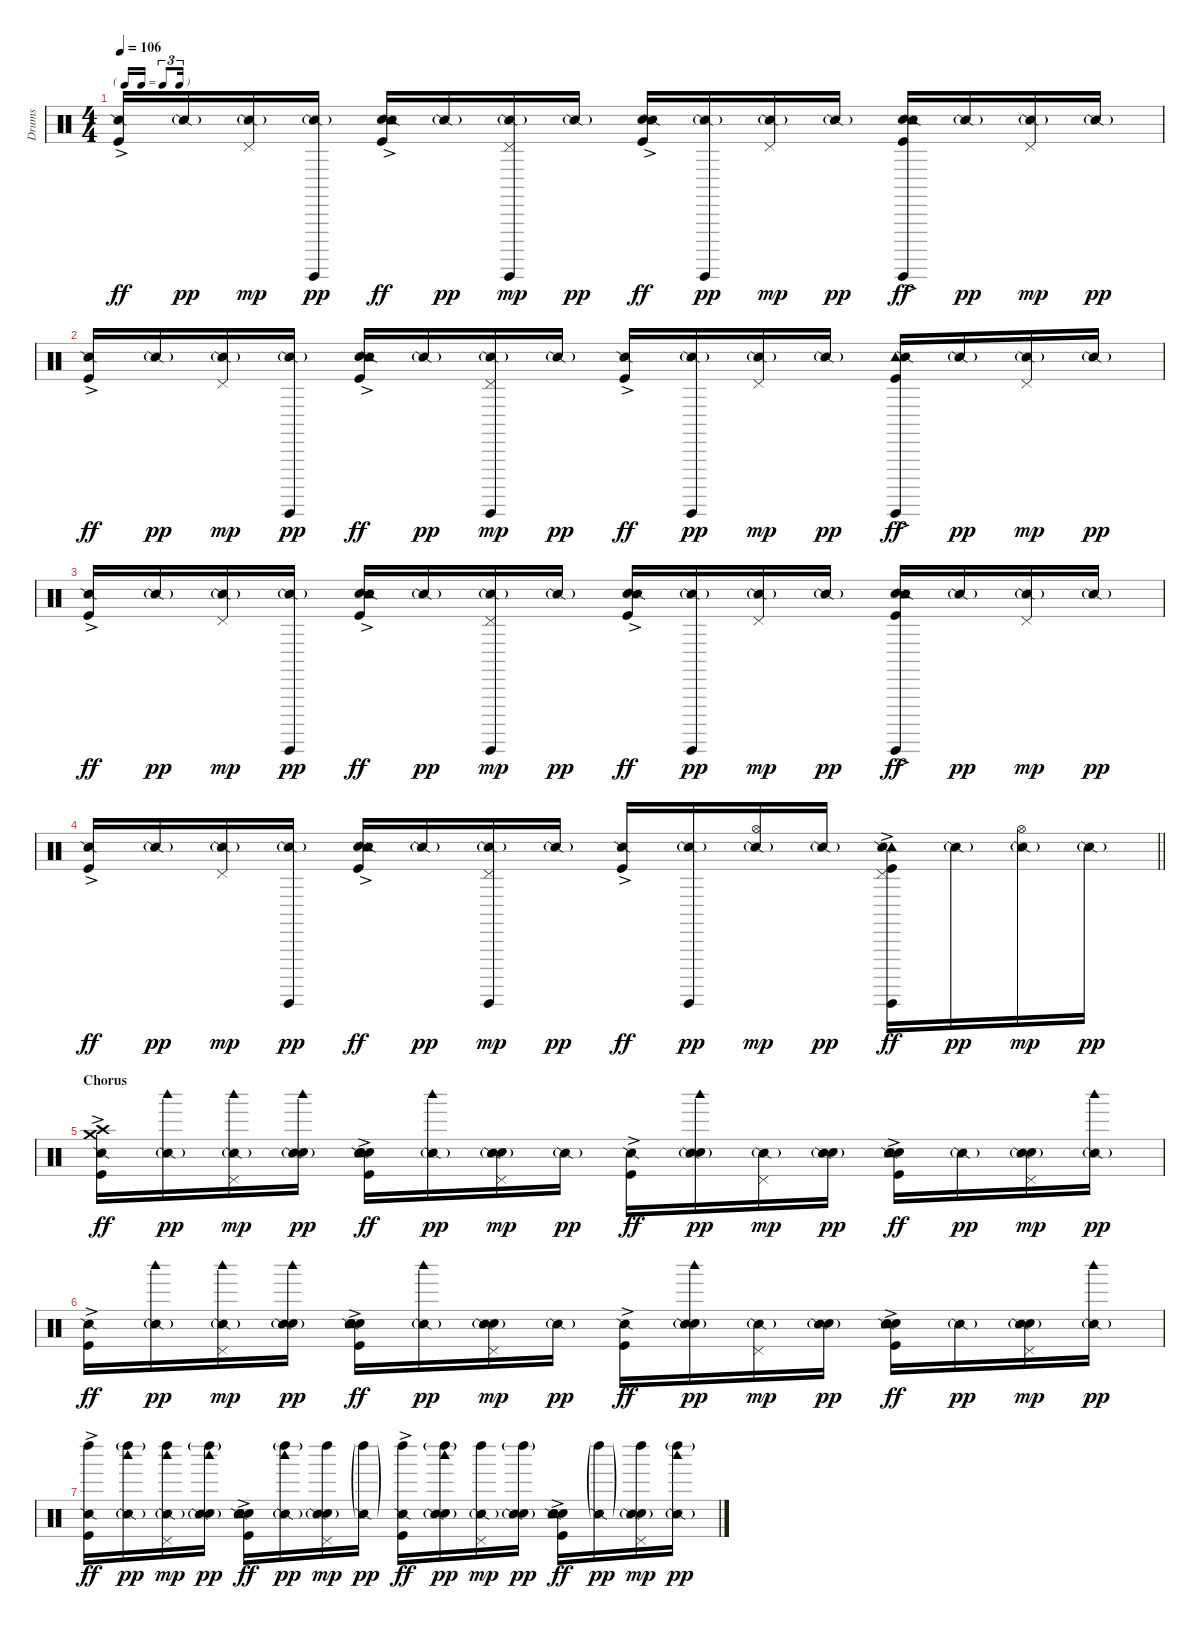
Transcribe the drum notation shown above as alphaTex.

\track ("Drums" "Drums") {instrument percussion}
\staff {score}
\articulation defaults
\ts (4 4)
\tf triplet16th
\tempo 106
\clef neutral
\ks c
("Kick (hit)"{ac} "Snare (side stick) 2").16{dy ff} "Snare (side stick) 2"{g}.16{dy pp} ("Pedal Hi-Hat (hit)" "Snare (side stick) 2"{g}).16{dy mp} ("Guiro (hit)" "Snare (side stick) 2"{g}).16{dy pp} ("Kick (hit)"{ac} "Hand Clap (hit)" "Tambourine (hit)" "Snare (side stick) 2").16{dy ff} "Snare (side stick) 2"{g}.16{dy pp} ("Guiro (hit)" "Pedal Hi-Hat (hit)" "Snare (side stick) 2"{g}).16{dy mp} "Snare (side stick) 2"{g}.16{dy pp} ("Kick (hit)"{ac} "Hand Clap (hit)" "Snare (side stick) 2").16{dy ff} ("Guiro (hit)" "Snare (side stick) 2"{g}).16{dy pp} ("Pedal Hi-Hat (hit)" "Snare (side stick) 2"{g}).16{dy mp} "Snare (side stick) 2"{g}.16{dy pp} ("Kick (hit)"{ac} "Guiro (hit)" "Hand Clap (hit)" "Tambourine (hit)" "Snare (side stick) 2").16{dy ff} "Snare (side stick) 2"{g}.16{dy pp} ("Pedal Hi-Hat (hit)" "Snare (side stick) 2"{g}).16{dy mp} "Snare (side stick) 2"{g}.16{dy pp} |
("Kick (hit)"{ac} "Snare (side stick) 2").16{dy ff} "Snare (side stick) 2"{g}.16{dy pp} ("Pedal Hi-Hat (hit)" "Snare (side stick) 2"{g}).16{dy mp} ("Guiro (hit)" "Snare (side stick) 2"{g}).16{dy pp} ("Kick (hit)"{ac} "Hand Clap (hit)" "Tambourine (hit)" "Snare (side stick) 2").16{dy ff} "Snare (side stick) 2"{g}.16{dy pp} ("Guiro (hit)" "Pedal Hi-Hat (hit)" "Snare (side stick) 2"{g}).16{dy mp} "Snare (side stick) 2"{g}.16{dy pp} ("Kick (hit)"{ac} "Snare (side stick) 2").16{dy ff} ("Guiro (hit)" "Snare (side stick) 2"{g}).16{dy pp} ("Pedal Hi-Hat (hit)" "Snare (side stick) 2"{g}).16{dy mp} "Snare (side stick) 2"{g}.16{dy pp} ("Kick (hit)"{ac} "Guiro (hit)" "Tambourine (hit)" "Snare (side stick) 2").16{dy ff} "Snare (side stick) 2"{g}.16{dy pp} ("Pedal Hi-Hat (hit)" "Snare (side stick) 2"{g}).16{dy mp} "Snare (side stick) 2"{g}.16{dy pp} |
("Kick (hit)"{ac} "Snare (side stick) 2").16{dy ff} "Snare (side stick) 2"{g}.16{dy pp} ("Pedal Hi-Hat (hit)" "Snare (side stick) 2"{g}).16{dy mp} ("Guiro (hit)" "Snare (side stick) 2"{g}).16{dy pp} ("Kick (hit)"{ac} "Hand Clap (hit)" "Tambourine (hit)" "Snare (side stick) 2").16{dy ff} "Snare (side stick) 2"{g}.16{dy pp} ("Guiro (hit)" "Pedal Hi-Hat (hit)" "Snare (side stick) 2"{g}).16{dy mp} "Snare (side stick) 2"{g}.16{dy pp} ("Kick (hit)"{ac} "Hand Clap (hit)" "Snare (side stick) 2").16{dy ff} ("Guiro (hit)" "Snare (side stick) 2"{g}).16{dy pp} ("Pedal Hi-Hat (hit)" "Snare (side stick) 2"{g}).16{dy mp} "Snare (side stick) 2"{g}.16{dy pp} ("Kick (hit)"{ac} "Guiro (hit)" "Hand Clap (hit)" "Tambourine (hit)" "Snare (side stick) 2").16{dy ff} "Snare (side stick) 2"{g}.16{dy pp} ("Pedal Hi-Hat (hit)" "Snare (side stick) 2"{g}).16{dy mp} "Snare (side stick) 2"{g}.16{dy pp} |
\barLineRight lightlight
("Kick (hit)"{ac} "Snare (side stick) 2").16{dy ff} "Snare (side stick) 2"{g}.16{dy pp} ("Pedal Hi-Hat (hit)" "Snare (side stick) 2"{g}).16{dy mp} ("Guiro (hit)" "Snare (side stick) 2"{g}).16{dy pp} ("Kick (hit)"{ac} "Hand Clap (hit)" "Tambourine (hit)" "Snare (side stick) 2").16{dy ff} "Snare (side stick) 2"{g}.16{dy pp} ("Guiro (hit)" "Pedal Hi-Hat (hit)" "Snare (side stick) 2"{g}).16{dy mp} "Snare (side stick) 2"{g}.16{dy pp} ("Kick (hit)"{ac} "Snare (side stick) 2").16{dy ff} ("Guiro (hit)" "Snare (side stick) 2"{g}).16{dy pp} ("Hi-Hat (open)" "Snare (side stick) 2"{g}).16{dy mp} "Snare (side stick) 2"{g}.16{dy pp} ("Kick (hit)"{ac} "Guiro (hit)" "Pedal Hi-Hat (hit)" "Tambourine (hit)" "Snare (side stick) 2").16{dy ff} "Snare (side stick) 2"{g}.16{dy pp} ("Hi-Hat (open)" "Snare (side stick) 2"{g}).16{dy mp} "Snare (side stick) 2"{g}.16{dy pp} |
\section ("" "Chorus")
("Kick (hit)"{ac} "Crash high (hit)" "Crash medium (hit)" "Snare (side stick) 2").16{dy ff} ("Woodblock high (hit)" "Snare (side stick) 2"{g}).16{dy pp} ("Pedal Hi-Hat (hit)" "Woodblock high (hit)" "Snare (side stick) 2"{g}).16{dy mp} ("Hand Clap (hit)" "Woodblock high (hit)" "Snare (side stick) 2"{g}).16{dy pp} ("Kick (hit)"{ac} "Hand Clap (hit)" "Snare (hit) 2"{ac} "Electric Snare (hit)" "Tambourine (hit)" "Snare (side stick) 2").16{dy ff} ("Woodblock high (hit)" "Snare (side stick) 2"{g}).16{dy pp} ("Hand Clap (hit)" "Pedal Hi-Hat (hit)" "Snare (side stick) 2"{g}).16{dy mp} "Snare (side stick) 2"{g}.16{dy pp} ("Kick (hit)"{ac} "Snare (side stick) 2").16{dy ff} ("Hand Clap (hit)" "Woodblock high (hit)" "Snare (side stick) 2"{g}).16{dy pp} ("Pedal Hi-Hat (hit)" "Snare (side stick) 2"{g}).16{dy mp} ("Hand Clap (hit)" "Snare (side stick) 2"{g}).16{dy pp} ("Kick (hit)"{ac} "Snare (hit) 2"{ac} "Electric Snare (hit)" "Tambourine (hit)" "Snare (side stick) 2").16{dy ff} "Snare (side stick) 2"{g}.16{dy pp} ("Hand Clap (hit)" "Pedal Hi-Hat (hit)" "Snare (side stick) 2"{g}).16{dy mp} ("Woodblock high (hit)" "Snare (side stick) 2"{g}).16{dy pp} |
("Kick (hit)"{ac} "Snare (side stick) 2").16{dy ff} ("Woodblock high (hit)" "Snare (side stick) 2"{g}).16{dy pp} ("Pedal Hi-Hat (hit)" "Woodblock high (hit)" "Snare (side stick) 2"{g}).16{dy mp} ("Hand Clap (hit)" "Woodblock high (hit)" "Snare (side stick) 2"{g}).16{dy pp} ("Kick (hit)"{ac} "Hand Clap (hit)" "Snare (hit) 2"{ac} "Electric Snare (hit)" "Tambourine (hit)" "Snare (side stick) 2").16{dy ff} ("Woodblock high (hit)" "Snare (side stick) 2"{g}).16{dy pp} ("Hand Clap (hit)" "Pedal Hi-Hat (hit)" "Snare (side stick) 2"{g}).16{dy mp} "Snare (side stick) 2"{g}.16{dy pp} ("Kick (hit)"{ac} "Snare (side stick) 2").16{dy ff} ("Hand Clap (hit)" "Woodblock high (hit)" "Snare (side stick) 2"{g}).16{dy pp} ("Pedal Hi-Hat (hit)" "Snare (side stick) 2"{g}).16{dy mp} ("Hand Clap (hit)" "Snare (side stick) 2"{g}).16{dy pp} ("Kick (hit)"{ac} "Snare (hit) 2"{ac} "Electric Snare (hit)" "Tambourine (hit)" "Snare (side stick) 2").16{dy ff} "Snare (side stick) 2"{g}.16{dy pp} ("Hand Clap (hit)" "Pedal Hi-Hat (hit)" "Snare (side stick) 2"{g}).16{dy mp} ("Woodblock high (hit)" "Snare (side stick) 2"{g}).16{dy pp} |
("Kick (hit)"{ac} "Left Maraca (hit)" "Snare (side stick) 2").16{dy ff} ("Left Maraca (hit)"{g} "Woodblock high (hit)" "Snare (side stick) 2"{g}).16{dy pp} ("Left Maraca (hit)" "Pedal Hi-Hat (hit)" "Woodblock high (hit)" "Snare (side stick) 2"{g}).16{dy mp} ("Hand Clap (hit)" "Left Maraca (hit)"{g} "Woodblock high (hit)" "Snare (side stick) 2"{g}).16{dy pp} ("Kick (hit)"{ac} "Hand Clap (hit)" "Snare (hit) 2"{ac} "Electric Snare (hit)" "Tambourine (hit)" "Snare (side stick) 2").16{dy ff} ("Left Maraca (hit)"{g} "Woodblock high (hit)" "Snare (side stick) 2"{g}).16{dy pp} ("Hand Clap (hit)" "Left Maraca (hit)" "Pedal Hi-Hat (hit)" "Snare (side stick) 2"{g}).16{dy mp} ("Left Maraca (hit)"{g} "Snare (side stick) 2"{g}).16{dy pp} ("Kick (hit)"{ac} "Left Maraca (hit)" "Snare (side stick) 2").16{dy ff} ("Hand Clap (hit)" "Left Maraca (hit)"{g} "Woodblock high (hit)" "Snare (side stick) 2"{g}).16{dy pp} ("Left Maraca (hit)" "Pedal Hi-Hat (hit)" "Snare (side stick) 2"{g}).16{dy mp} ("Hand Clap (hit)" "Left Maraca (hit)"{g} "Snare (side stick) 2"{g}).16{dy pp} ("Kick (hit)"{ac} "Snare (hit) 2"{ac} "Electric Snare (hit)" "Tambourine (hit)" "Snare (side stick) 2").16{dy ff} ("Left Maraca (hit)"{g} "Snare (side stick) 2"{g}).16{dy pp} ("Hand Clap (hit)" "Left Maraca (hit)" "Pedal Hi-Hat (hit)" "Snare (side stick) 2"{g}).16{dy mp} ("Left Maraca (hit)"{g} "Woodblock high (hit)" "Snare (side stick) 2"{g}).16{dy pp}
